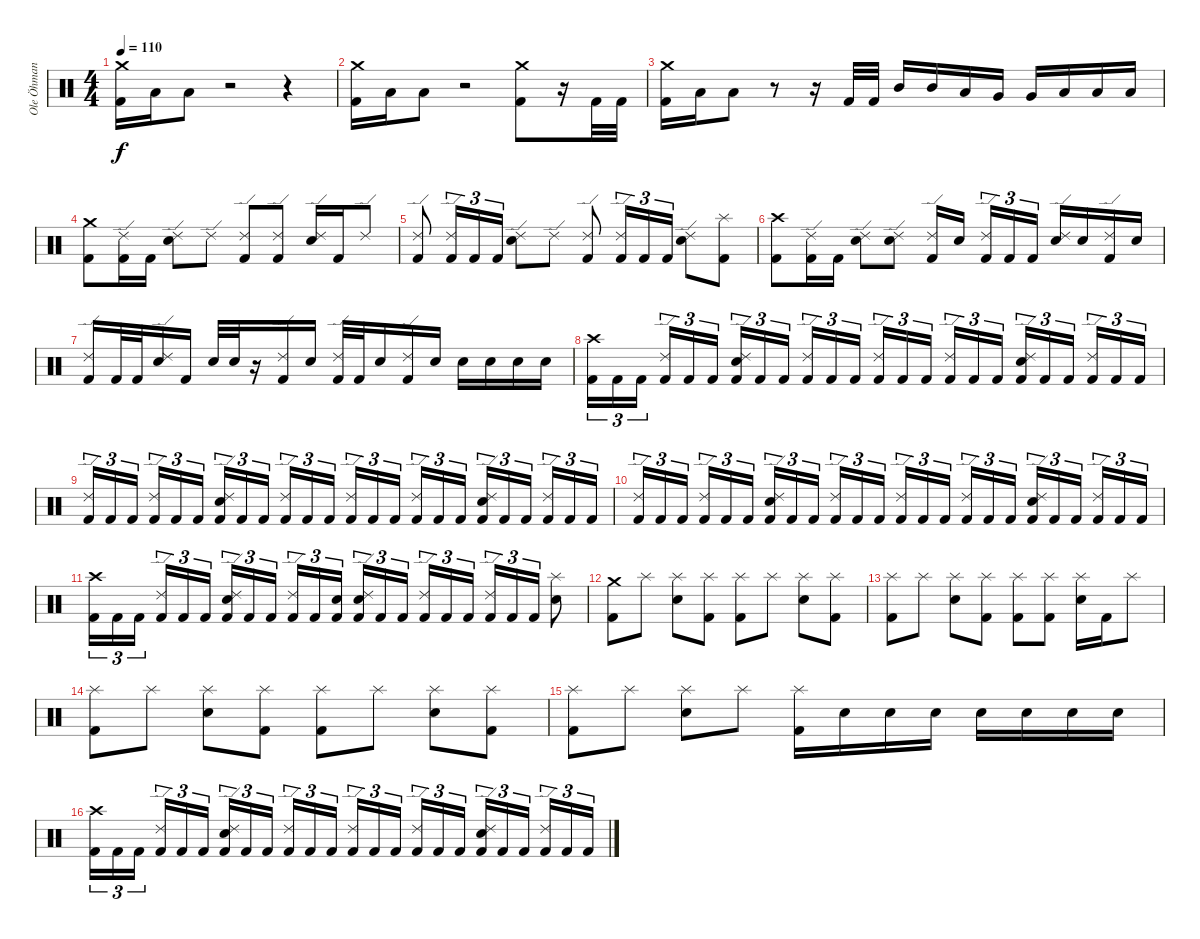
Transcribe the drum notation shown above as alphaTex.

\track ("Ole Öhman" "Ole Öhman") {instrument percussion}
\staff {score}
\articulation defaults
\ts (4 4)
\tempo 110
\clef neutral
\ks c
("Crash medium (hit)" "Kick (hit) 2").16{dy f} "Low Tom (hit)".16 "Low Tom (hit)".8 r.2 r.4 |
("Crash medium (hit)" "Kick (hit) 2").16 "Low Tom (hit)".16 "Low Tom (hit)".8 r.2 ("Crash medium (hit)" "Kick (hit) 2").8 r.16 "Kick (hit) 2".32 "Kick (hit) 2".32 |
("Crash medium (hit)" "Kick (hit) 2").16 "Low Tom (hit)".16 "Low Tom (hit)".8 r.8 r.16 "Kick (hit) 2".32 "Kick (hit) 2".32 "Mid Tom (hit)".16 "Mid Tom (hit)".16 "Low Tom (hit)".16 "Very Low Tom (hit)".16 "Very Low Tom (hit)".16 "Low Floor Tom (hit)".16 "Low Floor Tom (hit)".16 "Low Floor Tom (hit)".16 |
("Crash medium (hit)" "Kick (hit) 2").8 ("Ride (edge) 2" "Kick (hit) 2").16 "Kick (hit) 2".16 ("Ride (edge) 2" "Electric Snare (hit)").8 "Ride (edge) 2".8 ("Ride (edge) 2" "Kick (hit) 2").8 ("Ride (edge) 2" "Kick (hit) 2").8 ("Ride (edge) 2" "Electric Snare (hit)").16 "Kick (hit) 2".16 "Ride (edge) 2".8 |
("Ride (edge) 2" "Kick (hit) 2").8 ("Ride (edge) 2" "Kick (hit) 2").16{tu (3 2)} "Kick (hit) 2".16{tu (3 2)} "Kick (hit) 2".16{tu (3 2)} ("Ride (edge) 2" "Electric Snare (hit)").8 "Ride (edge) 2".8 ("Ride (edge) 2" "Kick (hit) 2").8 ("Ride (edge) 2" "Kick (hit) 2").16{tu (3 2)} "Kick (hit) 2".16{tu (3 2)} "Kick (hit) 2".16{tu (3 2)} ("Ride (edge) 2" "Electric Snare (hit)").8 ("Splash (hit)" "Kick (hit) 2").8 |
("Crash high (hit)" "Kick (hit) 2").8 ("Ride (edge) 2" "Kick (hit) 2").16 "Kick (hit) 2".16 ("Ride (edge) 2" "Electric Snare (hit)").8 ("Ride (edge) 2" "Electric Snare (hit)").8 ("Ride (edge) 2" "Kick (hit) 2").16 "Electric Snare (hit)".16 ("Ride (edge) 2" "Kick (hit) 2").16{tu (3 2)} "Kick (hit) 2".16{tu (3 2)} "Kick (hit) 2".16{tu (3 2)} ("Ride (edge) 2" "Electric Snare (hit)").16 "Electric Snare (hit)".16 ("Ride (edge) 2" "Kick (hit) 2").16 "Electric Snare (hit)".16 |
("Ride (edge) 2" "Kick (hit) 2").16 "Kick (hit) 2".32 "Kick (hit) 2".32 ("Ride (edge) 2" "Electric Snare (hit)").16 "Kick (hit) 2".16 "Electric Snare (hit)".32 "Electric Snare (hit)".32 r.16 ("Ride (edge) 2" "Kick (hit) 2").16 "Electric Snare (hit)".16 ("Ride (edge) 2" "Kick (hit) 2").32 "Kick (hit) 2".32 "Electric Snare (hit)".16 ("Ride (edge) 2" "Kick (hit) 2").16 "Electric Snare (hit)".16 "Electric Snare (hit)".16 "Electric Snare (hit)".16 "Electric Snare (hit)".16 "Electric Snare (hit)".16 |
("Crash high (hit)" "Kick (hit) 2").16{tu (3 2)} "Kick (hit) 2".16{tu (3 2)} "Kick (hit) 2".16{tu (3 2)} ("Ride (edge) 2" "Kick (hit) 2").16{tu (3 2)} "Kick (hit) 2".16{tu (3 2)} "Kick (hit) 2".16{tu (3 2)} ("Ride (edge) 2" "Electric Snare (hit)" "Kick (hit) 2").16{tu (3 2)} "Kick (hit) 2".16{tu (3 2)} "Kick (hit) 2".16{tu (3 2)} ("Ride (edge) 2" "Kick (hit) 2").16{tu (3 2)} "Kick (hit) 2".16{tu (3 2)} "Kick (hit) 2".16{tu (3 2)} ("Ride (edge) 2" "Kick (hit) 2").16{tu (3 2)} "Kick (hit) 2".16{tu (3 2)} "Kick (hit) 2".16{tu (3 2)} ("Ride (edge) 2" "Kick (hit) 2").16{tu (3 2)} "Kick (hit) 2".16{tu (3 2)} "Kick (hit) 2".16{tu (3 2)} ("Ride (edge) 2" "Electric Snare (hit)" "Kick (hit) 2").16{tu (3 2)} "Kick (hit) 2".16{tu (3 2)} "Kick (hit) 2".16{tu (3 2)} ("Ride (edge) 2" "Kick (hit) 2").16{tu (3 2)} "Kick (hit) 2".16{tu (3 2)} "Kick (hit) 2".16{tu (3 2)} |
("Ride (edge) 2" "Kick (hit) 2").16{tu (3 2)} "Kick (hit) 2".16{tu (3 2)} "Kick (hit) 2".16{tu (3 2)} ("Ride (edge) 2" "Kick (hit) 2").16{tu (3 2)} "Kick (hit) 2".16{tu (3 2)} "Kick (hit) 2".16{tu (3 2)} ("Ride (edge) 2" "Electric Snare (hit)" "Kick (hit) 2").16{tu (3 2)} "Kick (hit) 2".16{tu (3 2)} "Kick (hit) 2".16{tu (3 2)} ("Ride (edge) 2" "Kick (hit) 2").16{tu (3 2)} "Kick (hit) 2".16{tu (3 2)} "Kick (hit) 2".16{tu (3 2)} ("Ride (edge) 2" "Kick (hit) 2").16{tu (3 2)} "Kick (hit) 2".16{tu (3 2)} "Kick (hit) 2".16{tu (3 2)} ("Ride (edge) 2" "Kick (hit) 2").16{tu (3 2)} "Kick (hit) 2".16{tu (3 2)} "Kick (hit) 2".16{tu (3 2)} ("Ride (edge) 2" "Electric Snare (hit)" "Kick (hit) 2").16{tu (3 2)} "Kick (hit) 2".16{tu (3 2)} "Kick (hit) 2".16{tu (3 2)} ("Ride (edge) 2" "Kick (hit) 2").16{tu (3 2)} "Kick (hit) 2".16{tu (3 2)} "Kick (hit) 2".16{tu (3 2)} |
("Ride (edge) 2" "Kick (hit) 2").16{tu (3 2)} "Kick (hit) 2".16{tu (3 2)} "Kick (hit) 2".16{tu (3 2)} ("Ride (edge) 2" "Kick (hit) 2").16{tu (3 2)} "Kick (hit) 2".16{tu (3 2)} "Kick (hit) 2".16{tu (3 2)} ("Ride (edge) 2" "Electric Snare (hit)" "Kick (hit) 2").16{tu (3 2)} "Kick (hit) 2".16{tu (3 2)} "Kick (hit) 2".16{tu (3 2)} ("Ride (edge) 2" "Kick (hit) 2").16{tu (3 2)} "Kick (hit) 2".16{tu (3 2)} "Kick (hit) 2".16{tu (3 2)} ("Ride (edge) 2" "Kick (hit) 2").16{tu (3 2)} "Kick (hit) 2".16{tu (3 2)} "Kick (hit) 2".16{tu (3 2)} ("Ride (edge) 2" "Kick (hit) 2").16{tu (3 2)} "Kick (hit) 2".16{tu (3 2)} "Kick (hit) 2".16{tu (3 2)} ("Ride (edge) 2" "Electric Snare (hit)" "Kick (hit) 2").16{tu (3 2)} "Kick (hit) 2".16{tu (3 2)} "Kick (hit) 2".16{tu (3 2)} ("Ride (edge) 2" "Kick (hit) 2").16{tu (3 2)} "Kick (hit) 2".16{tu (3 2)} "Kick (hit) 2".16{tu (3 2)} |
("Crash high (hit)" "Kick (hit) 2").16{tu (3 2)} "Kick (hit) 2".16{tu (3 2)} "Kick (hit) 2".16{tu (3 2)} ("Ride (edge) 2" "Kick (hit) 2").16{tu (3 2)} "Kick (hit) 2".16{tu (3 2)} "Kick (hit) 2".16{tu (3 2)} ("Ride (edge) 2" "Electric Snare (hit)" "Kick (hit) 2").16{tu (3 2)} "Kick (hit) 2".16{tu (3 2)} "Kick (hit) 2".16{tu (3 2)} ("Ride (edge) 2" "Kick (hit) 2").16{tu (3 2)} "Kick (hit) 2".16{tu (3 2)} ("Electric Snare (hit)" "Kick (hit) 2").16{tu (3 2)} ("Ride (edge) 2" "Electric Snare (hit)" "Kick (hit) 2").16{tu (3 2)} "Kick (hit) 2".16{tu (3 2)} "Kick (hit) 2".16{tu (3 2)} ("Ride (edge) 2" "Kick (hit) 2").16{tu (3 2)} "Kick (hit) 2".16{tu (3 2)} "Kick (hit) 2".16{tu (3 2)} ("Ride (edge) 2" "Kick (hit) 2").16{tu (3 2)} "Kick (hit) 2".16{tu (3 2)} "Kick (hit) 2".16{tu (3 2)} ("Splash (hit)" "Electric Snare (hit)").8 |
("Crash medium (hit)" "Kick (hit) 2").8 "Splash (hit)".8 ("Splash (hit)" "Electric Snare (hit)").8 ("Splash (hit)" "Kick (hit) 2").8 ("Splash (hit)" "Kick (hit) 2").8 "Splash (hit)".8 ("Splash (hit)" "Electric Snare (hit)").8 ("Splash (hit)" "Kick (hit) 2").8 |
("Splash (hit)" "Kick (hit) 2").8 "Splash (hit)".8 ("Splash (hit)" "Electric Snare (hit)").8 ("Splash (hit)" "Kick (hit) 2").8 ("Splash (hit)" "Kick (hit) 2").8 ("Splash (hit)" "Kick (hit) 2").8 ("Splash (hit)" "Electric Snare (hit)").16 "Kick (hit) 2".16 "Splash (hit)".8 |
("Splash (hit)" "Kick (hit) 2").8 "Splash (hit)".8 ("Splash (hit)" "Electric Snare (hit)").8 ("Splash (hit)" "Kick (hit) 2").8 ("Splash (hit)" "Kick (hit) 2").8 "Splash (hit)".8 ("Splash (hit)" "Electric Snare (hit)").8 ("Splash (hit)" "Kick (hit) 2").8 |
("Splash (hit)" "Kick (hit) 2").8 "Splash (hit)".8 ("Splash (hit)" "Electric Snare (hit)").8 "Splash (hit)".8 ("Splash (hit)" "Kick (hit) 2").16 "Electric Snare (hit)".16 "Electric Snare (hit)".16 "Electric Snare (hit)".16 "Electric Snare (hit)".16 "Electric Snare (hit)".16 "Electric Snare (hit)".16 "Electric Snare (hit)".16 |
("Crash high (hit)" "Kick (hit) 2").16{tu (3 2)} "Kick (hit) 2".16{tu (3 2)} "Kick (hit) 2".16{tu (3 2)} ("Ride (edge) 2" "Kick (hit) 2").16{tu (3 2)} "Kick (hit) 2".16{tu (3 2)} "Kick (hit) 2".16{tu (3 2)} ("Ride (edge) 2" "Electric Snare (hit)" "Kick (hit) 2").16{tu (3 2)} "Kick (hit) 2".16{tu (3 2)} "Kick (hit) 2".16{tu (3 2)} ("Ride (edge) 2" "Kick (hit) 2").16{tu (3 2)} "Kick (hit) 2".16{tu (3 2)} "Kick (hit) 2".16{tu (3 2)} ("Ride (edge) 2" "Kick (hit) 2").16{tu (3 2)} "Kick (hit) 2".16{tu (3 2)} "Kick (hit) 2".16{tu (3 2)} ("Ride (edge) 2" "Kick (hit) 2").16{tu (3 2)} "Kick (hit) 2".16{tu (3 2)} "Kick (hit) 2".16{tu (3 2)} ("Ride (edge) 2" "Electric Snare (hit)" "Kick (hit) 2").16{tu (3 2)} "Kick (hit) 2".16{tu (3 2)} "Kick (hit) 2".16{tu (3 2)} ("Ride (edge) 2" "Kick (hit) 2").16{tu (3 2)} "Kick (hit) 2".16{tu (3 2)} "Kick (hit) 2".16{tu (3 2)}
